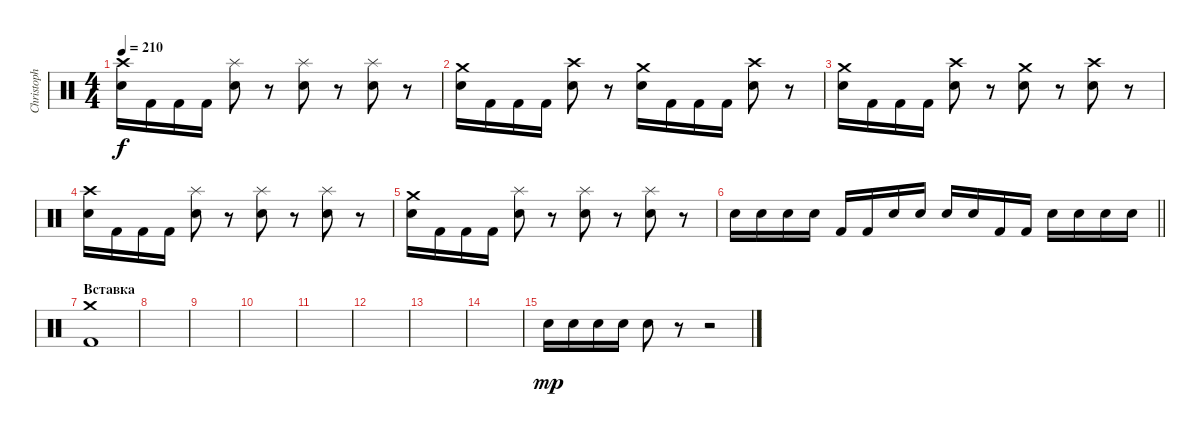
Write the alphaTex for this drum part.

\track ("Christoph Schneider" "Christoph ") {instrument percussion}
\staff {score}
\articulation defaults
\ts (4 4)
\tempo 210
\clef neutral
\ks c
("Crash high (hit)" "Electric Snare (hit)").16{dy f} "Kick (hit) 2".16 "Kick (hit) 2".16 "Kick (hit) 2".16 ("Splash (hit)" "Electric Snare (hit)").8 r.8 ("Splash (hit)" "Electric Snare (hit)").8 r.8 ("Splash (hit)" "Electric Snare (hit)").8 r.8 |
("Crash medium (hit)" "Electric Snare (hit)").16 "Kick (hit) 2".16 "Kick (hit) 2".16 "Kick (hit) 2".16 ("Crash high (hit)" "Electric Snare (hit)").8 r.8 ("Crash medium (hit)" "Electric Snare (hit)").16 "Kick (hit) 2".16 "Kick (hit) 2".16 "Kick (hit) 2".16 ("Crash high (hit)" "Electric Snare (hit)").8 r.8 |
("Crash medium (hit)" "Electric Snare (hit)").16 "Kick (hit) 2".16 "Kick (hit) 2".16 "Kick (hit) 2".16 ("Crash high (hit)" "Electric Snare (hit)").8 r.8 ("Crash medium (hit)" "Electric Snare (hit)").8 r.8 ("Crash high (hit)" "Electric Snare (hit)").8 r.8 |
("Crash high (hit)" "Electric Snare (hit)").16 "Kick (hit) 2".16 "Kick (hit) 2".16 "Kick (hit) 2".16 ("Splash (hit)" "Electric Snare (hit)").8 r.8 ("Splash (hit)" "Electric Snare (hit)").8 r.8 ("Splash (hit)" "Electric Snare (hit)").8 r.8 |
("Crash medium (hit)" "Electric Snare (hit)").16 "Kick (hit) 2".16 "Kick (hit) 2".16 "Kick (hit) 2".16 ("Splash (hit)" "Electric Snare (hit)").8 r.8 ("Splash (hit)" "Electric Snare (hit)").8 r.8 ("Splash (hit)" "Electric Snare (hit)").8 r.8 |
\barLineRight lightlight "Electric Snare (hit)".16 "Electric Snare (hit)".16 "Electric Snare (hit)".16 "Electric Snare (hit)".16 "Kick (hit) 2".16 "Kick (hit) 2".16 "Electric Snare (hit)".16 "Electric Snare (hit)".16 "Electric Snare (hit)".16 "Electric Snare (hit)".16 "Kick (hit) 2".16 "Kick (hit) 2".16 "Electric Snare (hit)".16 "Electric Snare (hit)".16 "Electric Snare (hit)".16 "Electric Snare (hit)".16
|
\section ("" "Вставка")
("Kick (hit) 2" "Crash medium (hit)").1 |
|
|
|
|
|
|
|
"Electric Snare (hit)".16{dy mp} "Electric Snare (hit)".16 "Electric Snare (hit)".16 "Electric Snare (hit)".16 "Electric Snare (hit)".8 r.8 r.2
